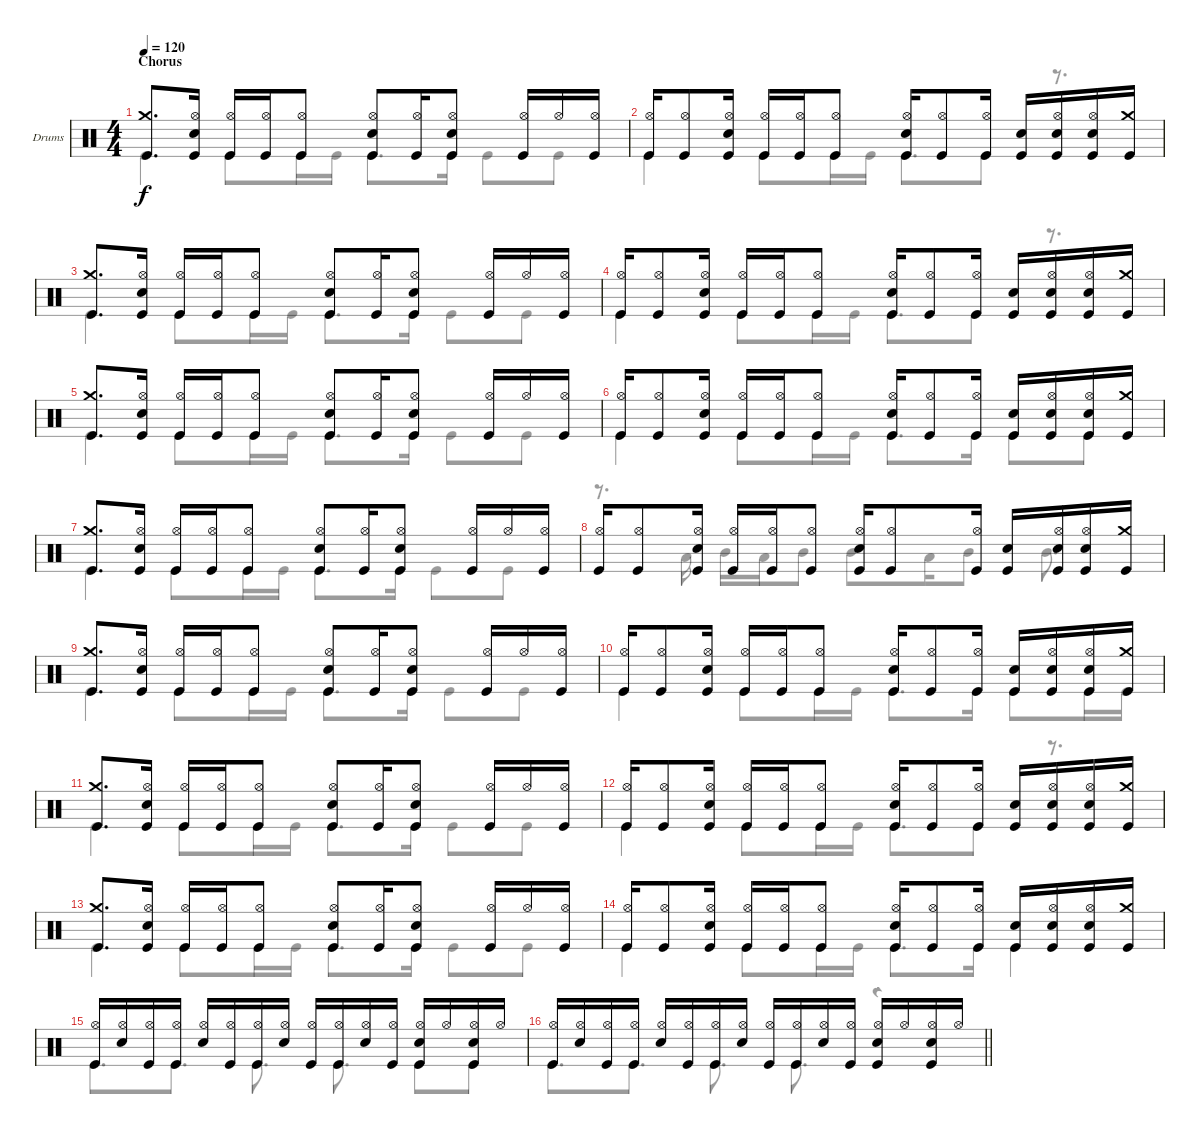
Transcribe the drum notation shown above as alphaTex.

\bracketExtendMode groupsimilarinstruments
\firstSystemTrackNameOrientation horizontal
\otherSystemsTrackNameOrientation horizontal
\track ("Drumkit" "Drums") {instrument percussion}
\staff {score}
\articulation defaults
\voice
\ts (4 4)
\section ("" "Chorus")
\tempo 120
\clef neutral
\ks c
("Crash medium (hit)" "Kick (hit)").8{d dy f} ("Hi-Hat (open)" "Snare (hit) 2" "Kick (hit)").16 ("Hi-Hat (open)" "Kick (hit)").16 ("Hi-Hat (open)" "Kick (hit)").16 ("Hi-Hat (open)" "Kick (hit)").8 ("Hi-Hat (open)" "Snare (hit) 2" "Kick (hit)").8 ("Hi-Hat (open)" "Kick (hit)").16 ("Hi-Hat (open)" "Snare (hit) 2" "Kick (hit)").8 ("Hi-Hat (open)" "Kick (hit)").16 "Hi-Hat (open)".16 ("Hi-Hat (open)" "Kick (hit)").16 |
("Hi-Hat (open)" "Kick (hit)").16 ("Hi-Hat (open)" "Kick (hit)").8 ("Hi-Hat (open)" "Snare (hit) 2" "Kick (hit)").16 ("Hi-Hat (open)" "Kick (hit)").16 ("Hi-Hat (open)" "Kick (hit)").16 ("Hi-Hat (open)" "Kick (hit)").8 ("Hi-Hat (open)" "Snare (hit) 2" "Kick (hit)").16 ("Hi-Hat (open)" "Kick (hit)").8 ("Hi-Hat (open)" "Kick (hit)").16 ("Snare (hit) 2" "Kick (hit)").16 ("Snare (hit) 2" "Hi-Hat (open)" "Kick (hit)").16 ("Snare (hit) 2" "Hi-Hat (open)" "Kick (hit)").16 ("Crash medium (hit)" "Kick (hit)").16 |
("Crash medium (hit)" "Kick (hit)").8{d} ("Hi-Hat (open)" "Snare (hit) 2" "Kick (hit)").16 ("Hi-Hat (open)" "Kick (hit)").16 ("Hi-Hat (open)" "Kick (hit)").16 ("Hi-Hat (open)" "Kick (hit)").8 ("Hi-Hat (open)" "Snare (hit) 2" "Kick (hit)").8 ("Hi-Hat (open)" "Kick (hit)").16 ("Hi-Hat (open)" "Snare (hit) 2" "Kick (hit)").8 ("Hi-Hat (open)" "Kick (hit)").16 "Hi-Hat (open)".16 ("Hi-Hat (open)" "Kick (hit)").16 |
("Hi-Hat (open)" "Kick (hit)").16 ("Hi-Hat (open)" "Kick (hit)").8 ("Hi-Hat (open)" "Snare (hit) 2" "Kick (hit)").16 ("Hi-Hat (open)" "Kick (hit)").16 ("Hi-Hat (open)" "Kick (hit)").16 ("Hi-Hat (open)" "Kick (hit)").8 ("Hi-Hat (open)" "Snare (hit) 2" "Kick (hit)").16 ("Hi-Hat (open)" "Kick (hit)").8 ("Hi-Hat (open)" "Kick (hit)").16 ("Snare (hit) 2" "Kick (hit)").16 ("Snare (hit) 2" "Hi-Hat (open)" "Kick (hit)").16 ("Snare (hit) 2" "Hi-Hat (open)" "Kick (hit)").16 ("Crash medium (hit)" "Kick (hit)").16 |
("Crash medium (hit)" "Kick (hit)").8{d} ("Hi-Hat (open)" "Snare (hit) 2" "Kick (hit)").16 ("Hi-Hat (open)" "Kick (hit)").16 ("Hi-Hat (open)" "Kick (hit)").16 ("Hi-Hat (open)" "Kick (hit)").8 ("Hi-Hat (open)" "Snare (hit) 2" "Kick (hit)").8 ("Hi-Hat (open)" "Kick (hit)").16 ("Hi-Hat (open)" "Snare (hit) 2" "Kick (hit)").8 ("Hi-Hat (open)" "Kick (hit)").16 "Hi-Hat (open)".16 ("Hi-Hat (open)" "Kick (hit)").16 |
("Hi-Hat (open)" "Kick (hit)").16 ("Hi-Hat (open)" "Kick (hit)").8 ("Hi-Hat (open)" "Snare (hit) 2" "Kick (hit)").16 ("Hi-Hat (open)" "Kick (hit)").16 ("Hi-Hat (open)" "Kick (hit)").16 ("Hi-Hat (open)" "Kick (hit)").8 ("Hi-Hat (open)" "Snare (hit) 2" "Kick (hit)").16 ("Hi-Hat (open)" "Kick (hit)").8 ("Hi-Hat (open)" "Kick (hit)").16 ("Snare (hit) 2" "Kick (hit)").16 ("Snare (hit) 2" "Hi-Hat (open)" "Kick (hit)").16 ("Snare (hit) 2" "Hi-Hat (open)" "Kick (hit)").16 ("Crash medium (hit)" "Kick (hit)").16 |
("Crash medium (hit)" "Kick (hit)").8{d} ("Hi-Hat (open)" "Snare (hit) 2" "Kick (hit)").16 ("Hi-Hat (open)" "Kick (hit)").16 ("Hi-Hat (open)" "Kick (hit)").16 ("Hi-Hat (open)" "Kick (hit)").8 ("Hi-Hat (open)" "Snare (hit) 2" "Kick (hit)").8 ("Hi-Hat (open)" "Kick (hit)").16 ("Hi-Hat (open)" "Snare (hit) 2" "Kick (hit)").8 ("Hi-Hat (open)" "Kick (hit)").16 "Hi-Hat (open)".16 ("Hi-Hat (open)" "Kick (hit)").16 |
("Hi-Hat (open)" "Kick (hit)").16 ("Hi-Hat (open)" "Kick (hit)").8 ("Hi-Hat (open)" "Snare (hit) 2" "Kick (hit)").16 ("Hi-Hat (open)" "Kick (hit)").16 ("Hi-Hat (open)" "Kick (hit)").16 ("Hi-Hat (open)" "Kick (hit)").8 ("Hi-Hat (open)" "Snare (hit) 2" "Kick (hit)").16 ("Hi-Hat (open)" "Kick (hit)").8 ("Hi-Hat (open)" "Kick (hit)").16 ("Snare (hit) 2" "Kick (hit)").16 ("Snare (hit) 2" "Hi-Hat (open)" "Kick (hit)").16 ("Snare (hit) 2" "Hi-Hat (open)" "Kick (hit)").16 ("Crash medium (hit)" "Kick (hit)").16 |
("Crash medium (hit)" "Kick (hit)").8{d} ("Hi-Hat (open)" "Snare (hit) 2" "Kick (hit)").16 ("Hi-Hat (open)" "Kick (hit)").16 ("Hi-Hat (open)" "Kick (hit)").16 ("Hi-Hat (open)" "Kick (hit)").8 ("Hi-Hat (open)" "Snare (hit) 2" "Kick (hit)").8 ("Hi-Hat (open)" "Kick (hit)").16 ("Hi-Hat (open)" "Snare (hit) 2" "Kick (hit)").8 ("Hi-Hat (open)" "Kick (hit)").16 "Hi-Hat (open)".16 ("Hi-Hat (open)" "Kick (hit)").16 |
("Hi-Hat (open)" "Kick (hit)").16 ("Hi-Hat (open)" "Kick (hit)").8 ("Hi-Hat (open)" "Snare (hit) 2" "Kick (hit)").16 ("Hi-Hat (open)" "Kick (hit)").16 ("Hi-Hat (open)" "Kick (hit)").16 ("Hi-Hat (open)" "Kick (hit)").8 ("Hi-Hat (open)" "Snare (hit) 2" "Kick (hit)").16 ("Hi-Hat (open)" "Kick (hit)").8 ("Hi-Hat (open)" "Kick (hit)").16 ("Snare (hit) 2" "Kick (hit)").16 ("Snare (hit) 2" "Hi-Hat (open)" "Kick (hit)").16 ("Snare (hit) 2" "Hi-Hat (open)" "Kick (hit)").16 ("Crash medium (hit)" "Kick (hit)").16 |
("Crash medium (hit)" "Kick (hit)").8{d} ("Hi-Hat (open)" "Snare (hit) 2" "Kick (hit)").16 ("Hi-Hat (open)" "Kick (hit)").16 ("Hi-Hat (open)" "Kick (hit)").16 ("Hi-Hat (open)" "Kick (hit)").8 ("Hi-Hat (open)" "Snare (hit) 2" "Kick (hit)").8 ("Hi-Hat (open)" "Kick (hit)").16 ("Hi-Hat (open)" "Snare (hit) 2" "Kick (hit)").8 ("Hi-Hat (open)" "Kick (hit)").16 "Hi-Hat (open)".16 ("Hi-Hat (open)" "Kick (hit)").16 |
("Hi-Hat (open)" "Kick (hit)").16 ("Hi-Hat (open)" "Kick (hit)").8 ("Hi-Hat (open)" "Snare (hit) 2" "Kick (hit)").16 ("Hi-Hat (open)" "Kick (hit)").16 ("Hi-Hat (open)" "Kick (hit)").16 ("Hi-Hat (open)" "Kick (hit)").8 ("Hi-Hat (open)" "Snare (hit) 2" "Kick (hit)").16 ("Hi-Hat (open)" "Kick (hit)").8 ("Hi-Hat (open)" "Kick (hit)").16 ("Snare (hit) 2" "Kick (hit)").16 ("Snare (hit) 2" "Hi-Hat (open)" "Kick (hit)").16 ("Snare (hit) 2" "Hi-Hat (open)" "Kick (hit)").16 ("Crash medium (hit)" "Kick (hit)").16 |
("Crash medium (hit)" "Kick (hit)").8{d} ("Hi-Hat (open)" "Snare (hit) 2" "Kick (hit)").16 ("Hi-Hat (open)" "Kick (hit)").16 ("Hi-Hat (open)" "Kick (hit)").16 ("Hi-Hat (open)" "Kick (hit)").8 ("Hi-Hat (open)" "Snare (hit) 2" "Kick (hit)").8 ("Hi-Hat (open)" "Kick (hit)").16 ("Hi-Hat (open)" "Snare (hit) 2" "Kick (hit)").8 ("Hi-Hat (open)" "Kick (hit)").16 "Hi-Hat (open)".16 ("Hi-Hat (open)" "Kick (hit)").16 |
("Hi-Hat (open)" "Kick (hit)").16 ("Hi-Hat (open)" "Kick (hit)").8 ("Hi-Hat (open)" "Snare (hit) 2" "Kick (hit)").16 ("Hi-Hat (open)" "Kick (hit)").16 ("Hi-Hat (open)" "Kick (hit)").16 ("Hi-Hat (open)" "Kick (hit)").8 ("Hi-Hat (open)" "Snare (hit) 2" "Kick (hit)").16 ("Hi-Hat (open)" "Kick (hit)").8 ("Hi-Hat (open)" "Kick (hit)").16 ("Snare (hit) 2" "Kick (hit)").16 ("Snare (hit) 2" "Hi-Hat (open)" "Kick (hit)").16 ("Snare (hit) 2" "Hi-Hat (open)" "Kick (hit)").16 ("Crash medium (hit)" "Kick (hit)").16 |
("Hi-Hat (open)" "Kick (hit)").16 ("Hi-Hat (open)" "Snare (hit) 2").16 ("Hi-Hat (open)" "Kick (hit)").16 ("Hi-Hat (open)" "Kick (hit)").16 ("Hi-Hat (open)" "Snare (hit) 2").16 ("Hi-Hat (open)" "Kick (hit)").16 ("Hi-Hat (open)" "Kick (hit)").16 ("Hi-Hat (open)" "Snare (hit) 2").16 ("Hi-Hat (open)" "Kick (hit)").16 ("Hi-Hat (open)" "Kick (hit)").16 ("Hi-Hat (open)" "Snare (hit) 2").16 ("Hi-Hat (open)" "Kick (hit)").16 ("Hi-Hat (open)" "Snare (hit) 2" "Kick (hit)").16 "Hi-Hat (open)".16 ("Hi-Hat (open)" "Snare (hit) 2" "Kick (hit)").16 "Hi-Hat (open)".16 |
\barLineRight lightlight
("Hi-Hat (open)" "Kick (hit)").16 ("Hi-Hat (open)" "Snare (hit) 2").16 ("Hi-Hat (open)" "Kick (hit)").16 ("Hi-Hat (open)" "Kick (hit)").16 ("Hi-Hat (open)" "Snare (hit) 2").16 ("Hi-Hat (open)" "Kick (hit)").16 ("Hi-Hat (open)" "Kick (hit)").16 ("Hi-Hat (open)" "Snare (hit) 2").16 ("Hi-Hat (open)" "Kick (hit)").16 ("Hi-Hat (open)" "Kick (hit)").16 ("Hi-Hat (open)" "Snare (hit) 2").16 ("Hi-Hat (open)" "Kick (hit)").16 ("Hi-Hat (open)" "Snare (hit) 2" "Kick (hit)").16 "Hi-Hat (open)".16 ("Hi-Hat (open)" "Snare (hit) 2" "Kick (hit)").16 "Hi-Hat (open)".16
\voice
\clef neutral
\ottava regular
\simile none
\ks c "Kick (hit)".4{dy f} "Kick (hit)".8 "Kick (hit)".16 "Kick (hit)".16 "Kick (hit)".8{d} "Kick (hit)".16 "Kick (hit)".8 "Kick (hit)".8
|
"Kick (hit)".4 "Kick (hit)".8 "Kick (hit)".16 "Kick (hit)".16 "Kick (hit)".8{d} "Kick (hit)".8 r.8{d} |
"Kick (hit)".4 "Kick (hit)".8 "Kick (hit)".16 "Kick (hit)".16 "Kick (hit)".8{d} "Kick (hit)".16 "Kick (hit)".8 "Kick (hit)".8 |
"Kick (hit)".4 "Kick (hit)".8 "Kick (hit)".16 "Kick (hit)".16 "Kick (hit)".8{d} "Kick (hit)".8 r.8{d} |
"Kick (hit)".4 "Kick (hit)".8 "Kick (hit)".16 "Kick (hit)".16 "Kick (hit)".8{d} "Kick (hit)".16 "Kick (hit)".8 "Kick (hit)".8 |
"Kick (hit)".4 "Kick (hit)".8 "Kick (hit)".16 "Kick (hit)".16 "Kick (hit)".8{d} "Kick (hit)".16 "Kick (hit)".8 "Kick (hit)".8 |
"Kick (hit)".4 "Kick (hit)".8 "Kick (hit)".16 "Kick (hit)".16 "Kick (hit)".8{d} "Kick (hit)".16 "Kick (hit)".8 "Kick (hit)".8 |
r.8{d} "Low Tom (hit)".16 "Mid Tom (hit)".16 "Low Tom (hit)".16 "Mid Tom (hit)".8 "Mid Tom (hit)".8 "Low Tom (hit)".16 "Mid Tom (hit)".8 "Mid Tom (hit)".8{d} |
"Kick (hit)".4 "Kick (hit)".8 "Kick (hit)".16 "Kick (hit)".16 "Kick (hit)".8{d} "Kick (hit)".16 "Kick (hit)".8 "Kick (hit)".8 |
"Kick (hit)".4 "Kick (hit)".8 "Kick (hit)".16 "Kick (hit)".16 "Kick (hit)".8{d} "Kick (hit)".16 "Kick (hit)".8 "Kick (hit)".16 "Kick (hit)".16 |
"Kick (hit)".4 "Kick (hit)".8 "Kick (hit)".16 "Kick (hit)".16 "Kick (hit)".8{d} "Kick (hit)".16 "Kick (hit)".8 "Kick (hit)".8 |
"Kick (hit)".4 "Kick (hit)".8 "Kick (hit)".16 "Kick (hit)".16 "Kick (hit)".8{d} "Kick (hit)".8 r.8{d} |
"Kick (hit)".4 "Kick (hit)".8 "Kick (hit)".16 "Kick (hit)".16 "Kick (hit)".8{d} "Kick (hit)".16 "Kick (hit)".8 "Kick (hit)".8 |
"Kick (hit)".4 "Kick (hit)".8 "Kick (hit)".16 "Kick (hit)".16 "Kick (hit)".8{d} "Kick (hit)".16 "Kick (hit)".4 |
"Kick (hit)".8{d} "Kick (hit)".8{d} "Kick (hit)".8{d} "Kick (hit)".8{d} "Kick (hit)".8 "Kick (hit)".8 |
\barLineRight lightlight "Kick (hit)".8{d} "Kick (hit)".8{d} "Kick (hit)".8{d} "Kick (hit)".8{d}
r.4
